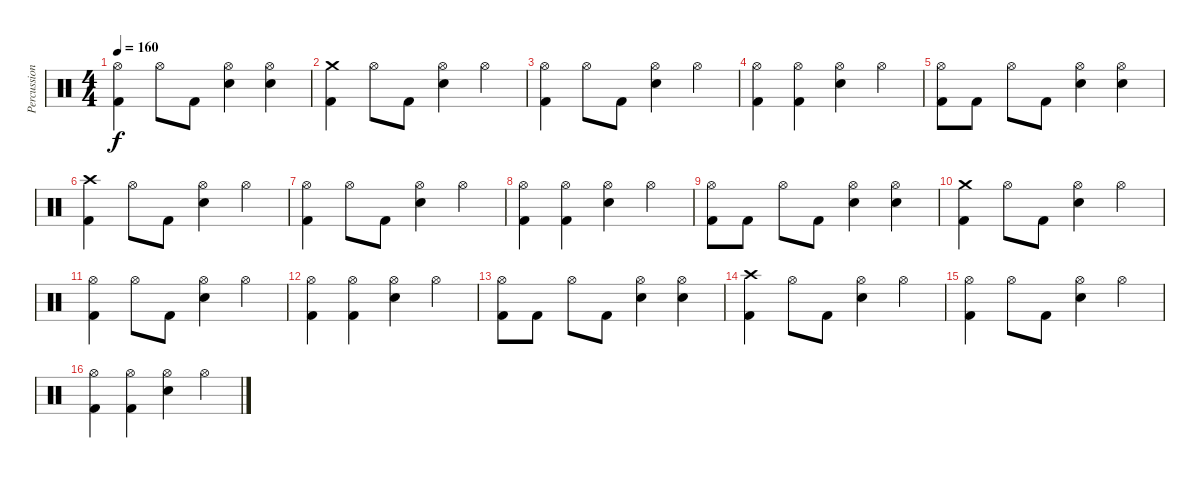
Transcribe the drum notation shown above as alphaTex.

\track ("Percussioni" "Percussion") {instrument percussion}
\staff {score}
\articulation defaults
\ts (4 4)
\tempo 160
\clef neutral
\ks c
("Hi-Hat (open)" "Kick (hit) 2").4{dy f} "Hi-Hat (open)".8 "Kick (hit) 2".8 ("Hi-Hat (open)" "Electric Snare (hit)").4 ("Hi-Hat (open)" "Electric Snare (hit)").4 |
("Crash medium (hit)" "Kick (hit) 2").4 "Hi-Hat (open)".8 "Kick (hit) 2".8 ("Hi-Hat (open)" "Electric Snare (hit)").4 "Hi-Hat (open)".4 |
("Hi-Hat (open)" "Kick (hit) 2").4 "Hi-Hat (open)".8 "Kick (hit) 2".8 ("Hi-Hat (open)" "Electric Snare (hit)").4 "Hi-Hat (open)".4 |
("Hi-Hat (open)" "Kick (hit) 2").4 ("Hi-Hat (open)" "Kick (hit) 2").4 ("Hi-Hat (open)" "Electric Snare (hit)").4 "Hi-Hat (open)".4 |
("Hi-Hat (open)" "Kick (hit) 2").8 "Kick (hit) 2".8 "Hi-Hat (open)".8 "Kick (hit) 2".8 ("Hi-Hat (open)" "Electric Snare (hit)").4 ("Hi-Hat (open)" "Electric Snare (hit)").4 |
("Crash high (hit)" "Kick (hit) 2").4 "Hi-Hat (open)".8 "Kick (hit) 2".8 ("Hi-Hat (open)" "Electric Snare (hit)").4 "Hi-Hat (open)".4 |
("Hi-Hat (open)" "Kick (hit) 2").4 "Hi-Hat (open)".8 "Kick (hit) 2".8 ("Hi-Hat (open)" "Electric Snare (hit)").4 "Hi-Hat (open)".4 |
("Hi-Hat (open)" "Kick (hit) 2").4 ("Hi-Hat (open)" "Kick (hit) 2").4 ("Hi-Hat (open)" "Electric Snare (hit)").4 "Hi-Hat (open)".4 |
("Hi-Hat (open)" "Kick (hit) 2").8 "Kick (hit) 2".8 "Hi-Hat (open)".8 "Kick (hit) 2".8 ("Hi-Hat (open)" "Electric Snare (hit)").4 ("Hi-Hat (open)" "Electric Snare (hit)").4 |
("Crash medium (hit)" "Kick (hit) 2").4 "Hi-Hat (open)".8 "Kick (hit) 2".8 ("Hi-Hat (open)" "Electric Snare (hit)").4 "Hi-Hat (open)".4 |
("Hi-Hat (open)" "Kick (hit) 2").4 "Hi-Hat (open)".8 "Kick (hit) 2".8 ("Hi-Hat (open)" "Electric Snare (hit)").4 "Hi-Hat (open)".4 |
("Hi-Hat (open)" "Kick (hit) 2").4 ("Hi-Hat (open)" "Kick (hit) 2").4 ("Hi-Hat (open)" "Electric Snare (hit)").4 "Hi-Hat (open)".4 |
("Hi-Hat (open)" "Kick (hit) 2").8 "Kick (hit) 2".8 "Hi-Hat (open)".8 "Kick (hit) 2".8 ("Hi-Hat (open)" "Electric Snare (hit)").4 ("Hi-Hat (open)" "Electric Snare (hit)").4 |
("Crash high (hit)" "Kick (hit) 2").4 "Hi-Hat (open)".8 "Kick (hit) 2".8 ("Hi-Hat (open)" "Electric Snare (hit)").4 "Hi-Hat (open)".4 |
("Hi-Hat (open)" "Kick (hit) 2").4 "Hi-Hat (open)".8 "Kick (hit) 2".8 ("Hi-Hat (open)" "Electric Snare (hit)").4 "Hi-Hat (open)".4 |
("Hi-Hat (open)" "Kick (hit) 2").4 ("Hi-Hat (open)" "Kick (hit) 2").4 ("Hi-Hat (open)" "Electric Snare (hit)").4 "Hi-Hat (open)".4
